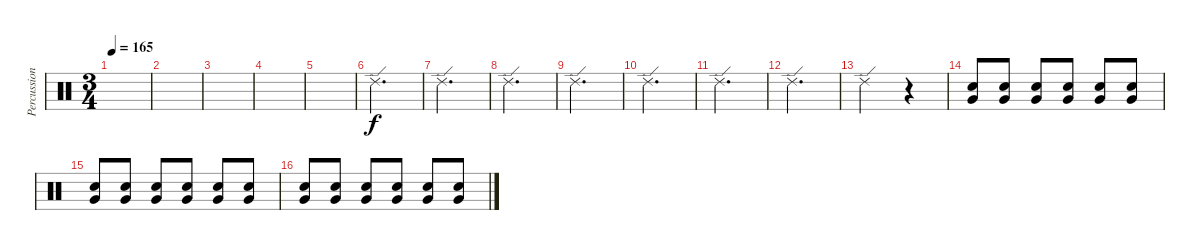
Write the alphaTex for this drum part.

\track ("Percussion (Moose)" "Percussion") {instrument percussion}
\staff {score}
\articulation defaults
\ts (3 4)
\tempo 165
\clef neutral
\ks c
|
|
|
|
|
"Ride (edge) 2".2{d} |
"Ride (edge) 2".2{d} |
"Ride (edge) 2".2{d} |
"Ride (edge) 2".2{d} |
"Ride (edge) 2".2{d} |
"Ride (edge) 2".2{d} |
"Ride (edge) 2".2{d} |
"Ride (edge) 2".2 r.4{volume 0} |
("Electric Snare (hit)" "Very Low Tom (hit)").8{volume 4} ("Electric Snare (hit)" "Very Low Tom (hit)").8 ("Electric Snare (hit)" "Very Low Tom (hit)").8 ("Electric Snare (hit)" "Very Low Tom (hit)").8 ("Electric Snare (hit)" "Very Low Tom (hit)").8 ("Electric Snare (hit)" "Very Low Tom (hit)").8 |
("Electric Snare (hit)" "Very Low Tom (hit)").8 ("Electric Snare (hit)" "Very Low Tom (hit)").8 ("Electric Snare (hit)" "Very Low Tom (hit)").8 ("Electric Snare (hit)" "Very Low Tom (hit)").8 ("Electric Snare (hit)" "Very Low Tom (hit)").8 ("Electric Snare (hit)" "Very Low Tom (hit)").8 |
("Electric Snare (hit)" "Very Low Tom (hit)").8 ("Electric Snare (hit)" "Very Low Tom (hit)").8 ("Electric Snare (hit)" "Very Low Tom (hit)").8 ("Electric Snare (hit)" "Very Low Tom (hit)").8 ("Electric Snare (hit)" "Very Low Tom (hit)").8 ("Electric Snare (hit)" "Very Low Tom (hit)").8
